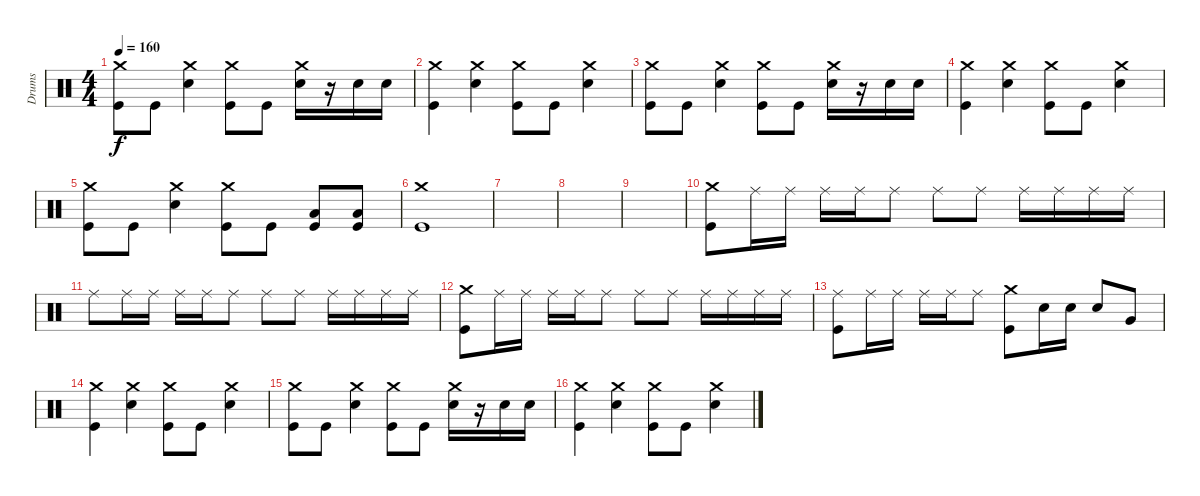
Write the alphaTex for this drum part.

\track ("Drums" "Drums") {instrument percussion}
\staff {score}
\articulation defaults
\ts (4 4)
\tempo 160
\clef neutral
\ks c
("Crash medium (hit)" "Kick (hit)").8{dy f} "Kick (hit)".8 ("Crash medium (hit)" "Electric Snare (hit)").4 ("Crash medium (hit)" "Kick (hit)").8 "Kick (hit)".8 ("Crash medium (hit)" "Electric Snare (hit)").16 r.16 "Electric Snare (hit)".16 "Electric Snare (hit)".16 |
("Crash medium (hit)" "Kick (hit)").4 ("Crash medium (hit)" "Electric Snare (hit)").4 ("Crash medium (hit)" "Kick (hit)").8 "Kick (hit)".8 ("Crash medium (hit)" "Electric Snare (hit)").4 |
("Crash medium (hit)" "Kick (hit)").8 "Kick (hit)".8 ("Crash medium (hit)" "Electric Snare (hit)").4 ("Crash medium (hit)" "Kick (hit)").8 "Kick (hit)".8 ("Crash medium (hit)" "Electric Snare (hit)").16 r.16 "Electric Snare (hit)".16 "Electric Snare (hit)".16 |
("Crash medium (hit)" "Kick (hit)").4 ("Crash medium (hit)" "Electric Snare (hit)").4 ("Crash medium (hit)" "Kick (hit)").8 "Kick (hit)".8 ("Crash medium (hit)" "Electric Snare (hit)").4 |
("Crash medium (hit)" "Kick (hit)").8 "Kick (hit)".8 ("Crash medium (hit)" "Electric Snare (hit)").4 ("Crash medium (hit)" "Kick (hit)").8 "Kick (hit)".8 ("Low Tom (hit)" "Kick (hit)").8 ("Low Tom (hit)" "Kick (hit)").8 |
("Crash medium (hit)" "Kick (hit)").1 |
|
|
|
("Crash medium (hit)" "Kick (hit)").8 "Ride (middle)".16 "Ride (middle)".16 "Ride (middle)".16 "Ride (middle)".16 "Ride (middle)".8 "Ride (middle)".8 "Ride (middle)".8 "Ride (middle)".16 "Ride (middle)".16 "Ride (middle)".16 "Ride (middle)".16 |
"Ride (middle)".8 "Ride (middle)".16 "Ride (middle)".16 "Ride (middle)".16 "Ride (middle)".16 "Ride (middle)".8 "Ride (middle)".8 "Ride (middle)".8 "Ride (middle)".16 "Ride (middle)".16 "Ride (middle)".16 "Ride (middle)".16 |
("Crash medium (hit)" "Kick (hit)").8 "Ride (middle)".16 "Ride (middle)".16 "Ride (middle)".16 "Ride (middle)".16 "Ride (middle)".8 "Ride (middle)".8 "Ride (middle)".8 "Ride (middle)".16 "Ride (middle)".16 "Ride (middle)".16 "Ride (middle)".16 |
("Ride (middle)" "Kick (hit)").8 "Ride (middle)".16 "Ride (middle)".16 "Ride (middle)".16 "Ride (middle)".16 "Ride (middle)".8 ("Crash medium (hit)" "Kick (hit)").8 "Electric Snare (hit)".16 "Electric Snare (hit)".16 "Electric Snare (hit)".8 "Very Low Tom (hit)".8 |
("Crash medium (hit)" "Kick (hit)").4 ("Crash medium (hit)" "Electric Snare (hit)").4 ("Crash medium (hit)" "Kick (hit)").8 "Kick (hit)".8 ("Crash medium (hit)" "Electric Snare (hit)").4 |
("Crash medium (hit)" "Kick (hit)").8 "Kick (hit)".8 ("Crash medium (hit)" "Electric Snare (hit)").4 ("Crash medium (hit)" "Kick (hit)").8 "Kick (hit)".8 ("Crash medium (hit)" "Electric Snare (hit)").16 r.16 "Electric Snare (hit)".16 "Electric Snare (hit)".16 |
("Crash medium (hit)" "Kick (hit)").4 ("Crash medium (hit)" "Electric Snare (hit)").4 ("Crash medium (hit)" "Kick (hit)").8 "Kick (hit)".8 ("Crash medium (hit)" "Electric Snare (hit)").4
